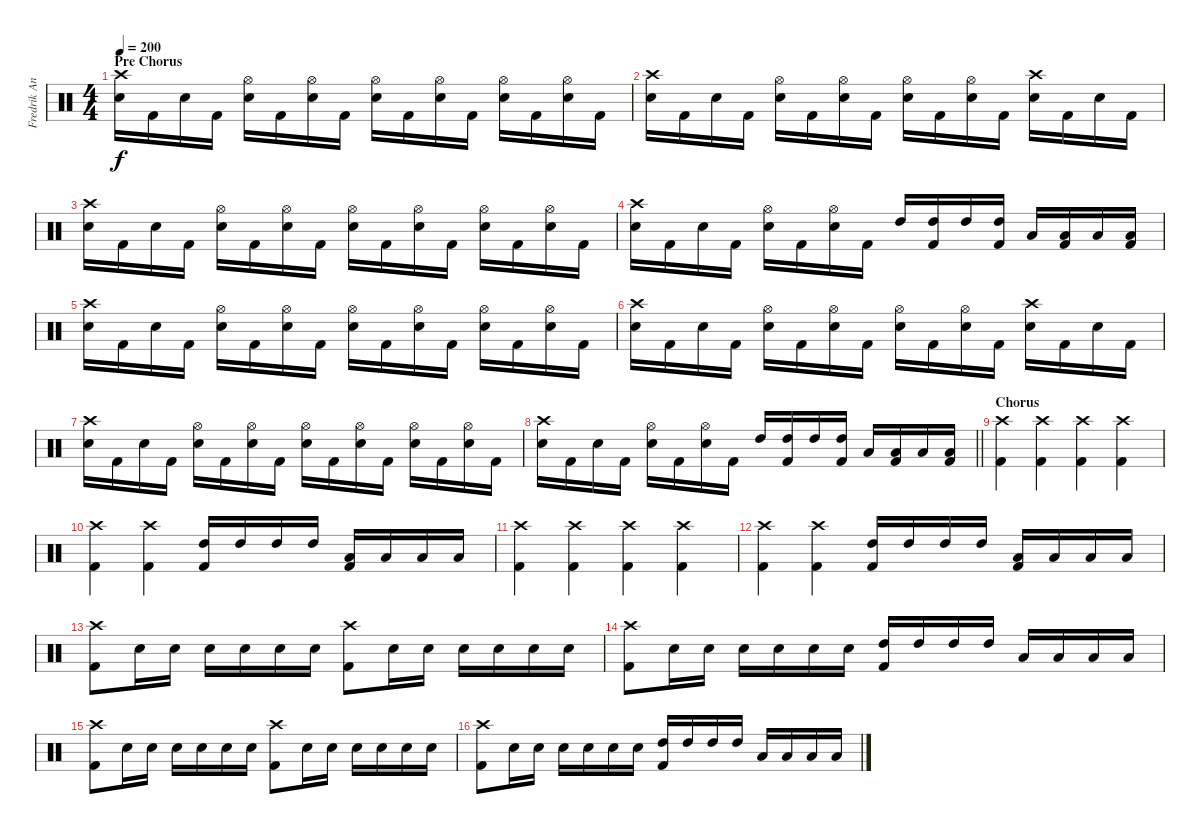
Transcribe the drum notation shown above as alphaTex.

\track ("Fredrik Andersson " "Fredrik An") {instrument percussion}
\staff {score}
\articulation defaults
\ts (4 4)
\section ("" "Pre Chorus")
\tempo 200
\clef neutral
\ks c
("Crash high (hit)" "Snare (hit) 2").16{dy f} "Kick (hit) 2".16 "Snare (hit) 2".16 "Kick (hit) 2".16 ("Hi-Hat (open)" "Snare (hit) 2").16 "Kick (hit) 2".16 ("Hi-Hat (open)" "Snare (hit) 2").16 "Kick (hit) 2".16 ("Hi-Hat (open)" "Snare (hit) 2").16 "Kick (hit) 2".16 ("Hi-Hat (open)" "Snare (hit) 2").16 "Kick (hit) 2".16 ("Hi-Hat (open)" "Snare (hit) 2").16 "Kick (hit) 2".16 ("Hi-Hat (open)" "Snare (hit) 2").16 "Kick (hit) 2".16 |
("Crash high (hit)" "Snare (hit) 2").16 "Kick (hit) 2".16 "Snare (hit) 2".16 "Kick (hit) 2".16 ("Hi-Hat (open)" "Snare (hit) 2").16 "Kick (hit) 2".16 ("Hi-Hat (open)" "Snare (hit) 2").16 "Kick (hit) 2".16 ("Hi-Hat (open)" "Snare (hit) 2").16 "Kick (hit) 2".16 ("Hi-Hat (open)" "Snare (hit) 2").16 "Kick (hit) 2".16 ("Crash high (hit)" "Snare (hit) 2").16 "Kick (hit) 2".16 "Snare (hit) 2".16 "Kick (hit) 2".16 |
("Crash high (hit)" "Snare (hit) 2").16 "Kick (hit) 2".16 "Snare (hit) 2".16 "Kick (hit) 2".16 ("Hi-Hat (open)" "Snare (hit) 2").16 "Kick (hit) 2".16 ("Hi-Hat (open)" "Snare (hit) 2").16 "Kick (hit) 2".16 ("Hi-Hat (open)" "Snare (hit) 2").16 "Kick (hit) 2".16 ("Hi-Hat (open)" "Snare (hit) 2").16 "Kick (hit) 2".16 ("Hi-Hat (open)" "Snare (hit) 2").16 "Kick (hit) 2".16 ("Hi-Hat (open)" "Snare (hit) 2").16 "Kick (hit) 2".16 |
("Crash high (hit)" "Snare (hit) 2").16 "Kick (hit) 2".16 "Snare (hit) 2".16 "Kick (hit) 2".16 ("Hi-Hat (open)" "Snare (hit) 2").16 "Kick (hit) 2".16 ("Hi-Hat (open)" "Snare (hit) 2").16 "Kick (hit) 2".16 "High Tom (hit)".16 ("High Tom (hit)" "Kick (hit) 2").16 "High Tom (hit)".16 ("High Tom (hit)" "Kick (hit) 2").16 "Low Tom (hit)".16 ("Low Tom (hit)" "Kick (hit) 2").16 "Low Tom (hit)".16 ("Low Tom (hit)" "Kick (hit) 2").16 |
("Crash high (hit)" "Snare (hit) 2").16 "Kick (hit) 2".16 "Snare (hit) 2".16 "Kick (hit) 2".16 ("Hi-Hat (open)" "Snare (hit) 2").16 "Kick (hit) 2".16 ("Hi-Hat (open)" "Snare (hit) 2").16 "Kick (hit) 2".16 ("Hi-Hat (open)" "Snare (hit) 2").16 "Kick (hit) 2".16 ("Hi-Hat (open)" "Snare (hit) 2").16 "Kick (hit) 2".16 ("Hi-Hat (open)" "Snare (hit) 2").16 "Kick (hit) 2".16 ("Hi-Hat (open)" "Snare (hit) 2").16 "Kick (hit) 2".16 |
("Crash high (hit)" "Snare (hit) 2").16 "Kick (hit) 2".16 "Snare (hit) 2".16 "Kick (hit) 2".16 ("Hi-Hat (open)" "Snare (hit) 2").16 "Kick (hit) 2".16 ("Hi-Hat (open)" "Snare (hit) 2").16 "Kick (hit) 2".16 ("Hi-Hat (open)" "Snare (hit) 2").16 "Kick (hit) 2".16 ("Hi-Hat (open)" "Snare (hit) 2").16 "Kick (hit) 2".16 ("Crash high (hit)" "Snare (hit) 2").16 "Kick (hit) 2".16 "Snare (hit) 2".16 "Kick (hit) 2".16 |
("Crash high (hit)" "Snare (hit) 2").16 "Kick (hit) 2".16 "Snare (hit) 2".16 "Kick (hit) 2".16 ("Hi-Hat (open)" "Snare (hit) 2").16 "Kick (hit) 2".16 ("Hi-Hat (open)" "Snare (hit) 2").16 "Kick (hit) 2".16 ("Hi-Hat (open)" "Snare (hit) 2").16 "Kick (hit) 2".16 ("Hi-Hat (open)" "Snare (hit) 2").16 "Kick (hit) 2".16 ("Hi-Hat (open)" "Snare (hit) 2").16 "Kick (hit) 2".16 ("Hi-Hat (open)" "Snare (hit) 2").16 "Kick (hit) 2".16 |
\barLineRight lightlight
("Crash high (hit)" "Snare (hit) 2").16 "Kick (hit) 2".16 "Snare (hit) 2".16 "Kick (hit) 2".16 ("Hi-Hat (open)" "Snare (hit) 2").16 "Kick (hit) 2".16 ("Hi-Hat (open)" "Snare (hit) 2").16 "Kick (hit) 2".16 "High Tom (hit)".16 ("High Tom (hit)" "Kick (hit) 2").16 "High Tom (hit)".16 ("High Tom (hit)" "Kick (hit) 2").16 "Low Tom (hit)".16 ("Low Tom (hit)" "Kick (hit) 2").16 "Low Tom (hit)".16 ("Low Tom (hit)" "Kick (hit) 2").16 |
\section ("" "Chorus")
("Crash high (hit)" "Kick (hit) 2").4 ("Crash high (hit)" "Kick (hit) 2").4 ("Crash high (hit)" "Kick (hit) 2").4 ("Crash high (hit)" "Kick (hit) 2").4 |
("Crash high (hit)" "Kick (hit) 2").4 ("Crash high (hit)" "Kick (hit) 2").4 ("High Tom (hit)" "Kick (hit) 2").16 "High Tom (hit)".16 "High Tom (hit)".16 "High Tom (hit)".16 ("Low Tom (hit)" "Kick (hit) 2").16 "Low Tom (hit)".16 "Low Tom (hit)".16 "Low Tom (hit)".16 |
("Crash high (hit)" "Kick (hit) 2").4 ("Crash high (hit)" "Kick (hit) 2").4 ("Crash high (hit)" "Kick (hit) 2").4 ("Crash high (hit)" "Kick (hit) 2").4 |
("Crash high (hit)" "Kick (hit) 2").4 ("Crash high (hit)" "Kick (hit) 2").4 ("High Tom (hit)" "Kick (hit) 2").16 "High Tom (hit)".16 "High Tom (hit)".16 "High Tom (hit)".16 ("Low Tom (hit)" "Kick (hit) 2").16 "Low Tom (hit)".16 "Low Tom (hit)".16 "Low Tom (hit)".16 |
("Crash high (hit)" "Kick (hit) 2").8 "Snare (hit) 2".16 "Snare (hit) 2".16 "Snare (hit) 2".16 "Snare (hit) 2".16 "Snare (hit) 2".16 "Snare (hit) 2".16 ("Crash high (hit)" "Kick (hit) 2").8 "Snare (hit) 2".16 "Snare (hit) 2".16 "Snare (hit) 2".16 "Snare (hit) 2".16 "Snare (hit) 2".16 "Snare (hit) 2".16 |
("Crash high (hit)" "Kick (hit) 2").8 "Snare (hit) 2".16 "Snare (hit) 2".16 "Snare (hit) 2".16 "Snare (hit) 2".16 "Snare (hit) 2".16 "Snare (hit) 2".16 ("High Tom (hit)" "Kick (hit) 2").16 "High Tom (hit)".16 "High Tom (hit)".16 "High Tom (hit)".16 "Low Tom (hit)".16 "Low Tom (hit)".16 "Low Tom (hit)".16 "Low Tom (hit)".16 |
("Crash high (hit)" "Kick (hit) 2").8 "Snare (hit) 2".16 "Snare (hit) 2".16 "Snare (hit) 2".16 "Snare (hit) 2".16 "Snare (hit) 2".16 "Snare (hit) 2".16 ("Crash high (hit)" "Kick (hit) 2").8 "Snare (hit) 2".16 "Snare (hit) 2".16 "Snare (hit) 2".16 "Snare (hit) 2".16 "Snare (hit) 2".16 "Snare (hit) 2".16 |
("Crash high (hit)" "Kick (hit) 2").8 "Snare (hit) 2".16 "Snare (hit) 2".16 "Snare (hit) 2".16 "Snare (hit) 2".16 "Snare (hit) 2".16 "Snare (hit) 2".16 ("High Tom (hit)" "Kick (hit) 2").16 "High Tom (hit)".16 "High Tom (hit)".16 "High Tom (hit)".16 "Low Tom (hit)".16 "Low Tom (hit)".16 "Low Tom (hit)".16 "Low Tom (hit)".16
